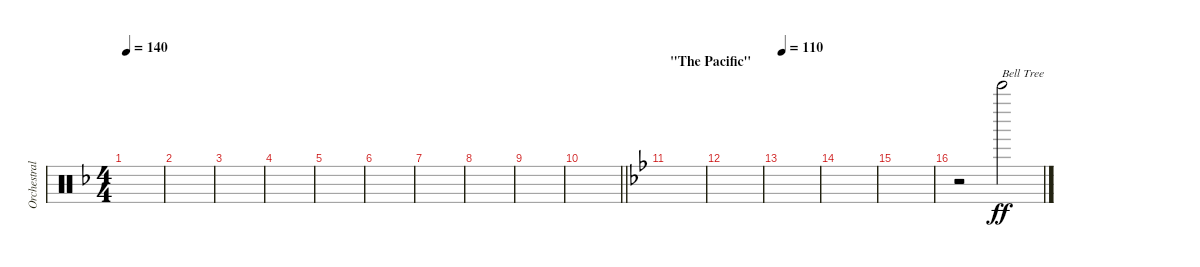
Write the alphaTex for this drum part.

\track ("Orchestral Percussion I" "Orchestral") {instrument percussion}
\staff {score}
\articulation defaults
\ts (4 4)
\tempo 140
\clef neutral
\ks dminor
|
|
|
|
|
|
|
|
|
\barLineRight lightlight
|
\section ("" "\"The Pacific\"")
\ks gminor
|
|
\tempo 110
|
|
|
r.2 "Bell Tree (hit)".2{txt "Bell Tree" dy ff}
